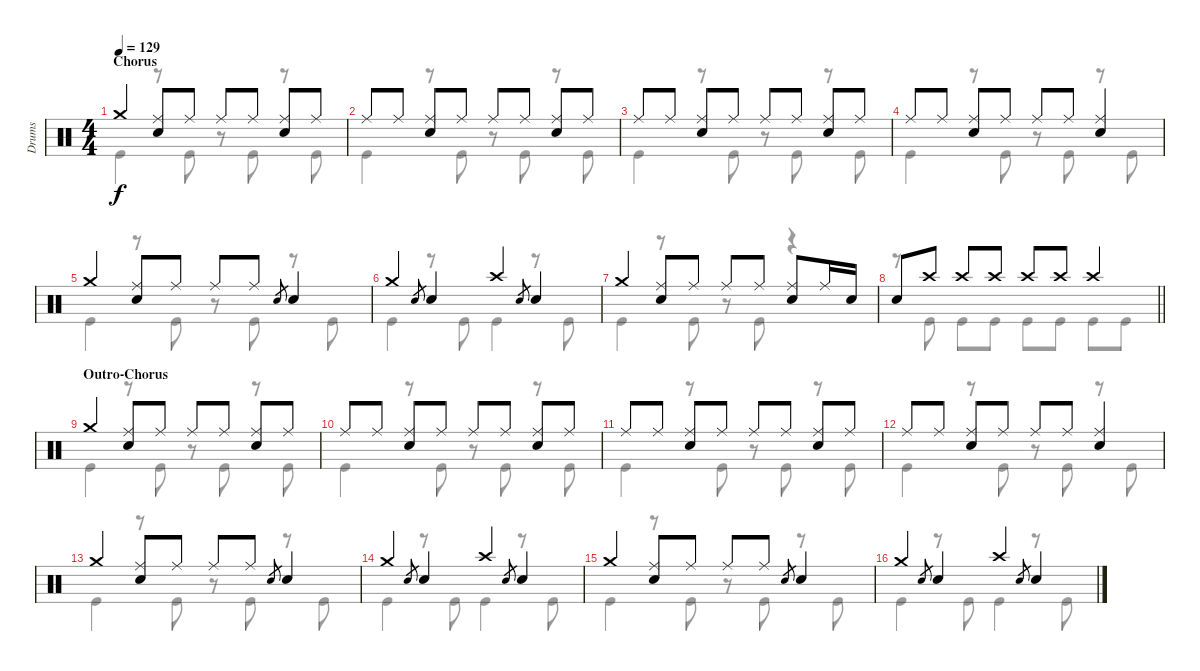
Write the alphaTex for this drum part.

\track ("Drums" "Drums") {instrument percussion}
\staff {score}
\articulation defaults
\voice
\ts (4 4)
\section ("" "Chorus")
\tempo 129
\clef neutral
\ks c "Crash medium (hit)".4{dy f}
("Ride (middle)" "Electric Snare (hit)").8 "Ride (middle)".8 "Ride (middle)".8 "Ride (middle)".8 ("Ride (middle)" "Electric Snare (hit)").8 "Ride (middle)".8 |
"Ride (middle)".8 "Ride (middle)".8 ("Ride (middle)" "Electric Snare (hit)").8 "Ride (middle)".8 "Ride (middle)".8 "Ride (middle)".8 ("Ride (middle)" "Electric Snare (hit)").8 "Ride (middle)".8 |
"Ride (middle)".8 "Ride (middle)".8 ("Ride (middle)" "Electric Snare (hit)").8 "Ride (middle)".8 "Ride (middle)".8 "Ride (middle)".8 ("Ride (middle)" "Electric Snare (hit)").8 "Ride (middle)".8 |
"Ride (middle)".8 "Ride (middle)".8 ("Ride (middle)" "Electric Snare (hit)").8 "Ride (middle)".8 "Ride (middle)".8 "Ride (middle)".8 ("Ride (middle)" "Electric Snare (hit)").4 |
"Crash medium (hit)".4 ("Ride (middle)" "Electric Snare (hit)").8 "Ride (middle)".8 "Ride (middle)".8 "Ride (middle)".8 "Electric Snare (hit)".8{gr} "Electric Snare (hit)".4 |
"Crash medium (hit)".4 "Electric Snare (hit)".8{gr} "Electric Snare (hit)".4 "Crash high (hit)".4 "Electric Snare (hit)".8{gr} "Electric Snare (hit)".4 |
"Crash medium (hit)".4 ("Ride (middle)" "Electric Snare (hit)").8 "Ride (middle)".8 "Ride (middle)".8 "Ride (middle)".8 ("Ride (middle)" "Electric Snare (hit)").8 "Ride (middle)".16 "Electric Snare (hit)".16 |
\barLineRight lightlight "Electric Snare (hit)".8 "Crash high (hit)".8 "Crash high (hit)".8 "Crash high (hit)".8 "Crash high (hit)".8 "Crash high (hit)".8 "Crash high (hit)".4
|
\section ("" "Outro-Chorus")
"Crash medium (hit)".4 ("Ride (middle)" "Electric Snare (hit)").8 "Ride (middle)".8 "Ride (middle)".8 "Ride (middle)".8 ("Ride (middle)" "Electric Snare (hit)").8 "Ride (middle)".8 |
"Ride (middle)".8 "Ride (middle)".8 ("Ride (middle)" "Electric Snare (hit)").8 "Ride (middle)".8 "Ride (middle)".8 "Ride (middle)".8 ("Ride (middle)" "Electric Snare (hit)").8 "Ride (middle)".8 |
"Ride (middle)".8 "Ride (middle)".8 ("Ride (middle)" "Electric Snare (hit)").8 "Ride (middle)".8 "Ride (middle)".8 "Ride (middle)".8 ("Ride (middle)" "Electric Snare (hit)").8 "Ride (middle)".8 |
"Ride (middle)".8 "Ride (middle)".8 ("Ride (middle)" "Electric Snare (hit)").8 "Ride (middle)".8 "Ride (middle)".8 "Ride (middle)".8 ("Ride (middle)" "Electric Snare (hit)").4 |
"Crash medium (hit)".4 ("Ride (middle)" "Electric Snare (hit)").8 "Ride (middle)".8 "Ride (middle)".8 "Ride (middle)".8 "Electric Snare (hit)".8{gr} "Electric Snare (hit)".4 |
"Crash medium (hit)".4 "Electric Snare (hit)".8{gr} "Electric Snare (hit)".4 "Crash high (hit)".4 "Electric Snare (hit)".8{gr} "Electric Snare (hit)".4 |
"Crash medium (hit)".4 ("Ride (middle)" "Electric Snare (hit)").8 "Ride (middle)".8 "Ride (middle)".8 "Ride (middle)".8 "Electric Snare (hit)".8{gr} "Electric Snare (hit)".4 |
"Crash medium (hit)".4 "Electric Snare (hit)".8{gr} "Electric Snare (hit)".4 "Crash high (hit)".4 "Electric Snare (hit)".8{gr} "Electric Snare (hit)".4
\voice
\clef neutral
\ottava regular
\simile none
\ks c "Kick (hit)".4{dy f}
r.8 "Kick (hit)".8 r.8 "Kick (hit)".8 r.8 "Kick (hit)".8 |
"Kick (hit)".4 r.8 "Kick (hit)".8 r.8 "Kick (hit)".8 r.8 "Kick (hit)".8 |
"Kick (hit)".4 r.8 "Kick (hit)".8 r.8 "Kick (hit)".8 r.8 "Kick (hit)".8 |
"Kick (hit)".4 r.8 "Kick (hit)".8 r.8 "Kick (hit)".8 r.8 "Kick (hit)".8 |
"Kick (hit)".4 r.8 "Kick (hit)".8 r.8 "Kick (hit)".8 r.8 "Kick (hit)".8 |
"Kick (hit)".4 r.8 "Kick (hit)".8 "Kick (hit)".4 r.8 "Kick (hit)".8 |
"Kick (hit)".4 r.8 "Kick (hit)".8 r.8 "Kick (hit)".8 r.4 |
\barLineRight lightlight
r.8 "Kick (hit)".8 "Kick (hit)".8 "Kick (hit)".8 "Kick (hit)".8 "Kick (hit)".8 "Kick (hit)".8 "Kick (hit)".8 |
"Kick (hit)".4 r.8 "Kick (hit)".8 r.8 "Kick (hit)".8 r.8 "Kick (hit)".8 |
"Kick (hit)".4 r.8 "Kick (hit)".8 r.8 "Kick (hit)".8 r.8 "Kick (hit)".8 |
"Kick (hit)".4 r.8 "Kick (hit)".8 r.8 "Kick (hit)".8 r.8 "Kick (hit)".8 |
"Kick (hit)".4 r.8 "Kick (hit)".8 r.8 "Kick (hit)".8 r.8 "Kick (hit)".8 |
"Kick (hit)".4 r.8 "Kick (hit)".8 r.8 "Kick (hit)".8 r.8 "Kick (hit)".8 |
"Kick (hit)".4 r.8 "Kick (hit)".8 "Kick (hit)".4 r.8 "Kick (hit)".8 |
"Kick (hit)".4 r.8 "Kick (hit)".8 r.8 "Kick (hit)".8 r.8 "Kick (hit)".8 |
"Kick (hit)".4 r.8 "Kick (hit)".8 "Kick (hit)".4 r.8 "Kick (hit)".8
